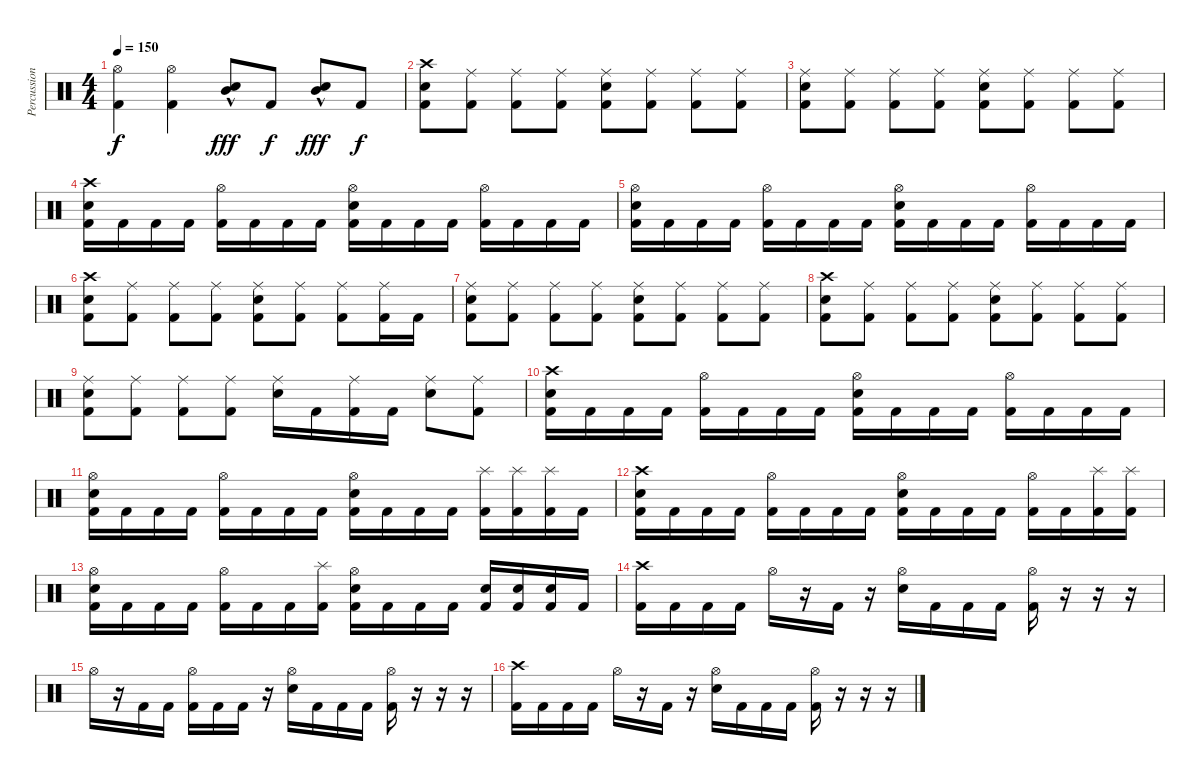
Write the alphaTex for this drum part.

\track ("Percussion" "Percussion") {instrument percussion}
\staff {score}
\articulation defaults
\ts (4 4)
\tempo 150
\clef neutral
\ks c
("Hi-Hat (open)" "Kick (hit) 2").4{dy f} ("Hi-Hat (open)" "Kick (hit) 2").4 ("Mid Tom (hit)"{hac} "Snare (hit) 2").8{dy fff} "Kick (hit) 2".8{dy f} ("Mid Tom (hit)"{hac} "Snare (hit) 2").8{dy fff} "Kick (hit) 2".8{dy f} |
("Crash high (hit)" "Snare (hit) 2" "Kick (hit) 2").8 ("Ride (middle)" "Kick (hit) 2").8 ("Ride (middle)" "Kick (hit) 2").8 ("Ride (middle)" "Kick (hit) 2").8 ("Ride (middle)" "Snare (hit) 2" "Kick (hit) 2").8 ("Ride (middle)" "Kick (hit) 2").8 ("Ride (middle)" "Kick (hit) 2").8 ("Ride (middle)" "Kick (hit) 2").8 |
("Ride (middle)" "Snare (hit) 2" "Kick (hit) 2").8 ("Ride (middle)" "Kick (hit) 2").8 ("Ride (middle)" "Kick (hit) 2").8 ("Ride (middle)" "Kick (hit) 2").8 ("Ride (middle)" "Snare (hit) 2" "Kick (hit) 2").8 ("Ride (middle)" "Kick (hit) 2").8 ("Ride (middle)" "Kick (hit) 2").8 ("Ride (middle)" "Kick (hit) 2").8 |
("Crash high (hit)" "Snare (hit) 2" "Kick (hit) 2").16 "Kick (hit) 2".16 "Kick (hit) 2".16 "Kick (hit) 2".16 ("Hi-Hat (open)" "Kick (hit) 2").16 "Kick (hit) 2".16 "Kick (hit) 2".16 "Kick (hit) 2".16 ("Hi-Hat (open)" "Snare (hit) 2" "Kick (hit) 2").16 "Kick (hit) 2".16 "Kick (hit) 2".16 "Kick (hit) 2".16 ("Hi-Hat (open)" "Kick (hit) 2").16 "Kick (hit) 2".16 "Kick (hit) 2".16 "Kick (hit) 2".16 |
("Hi-Hat (open)" "Snare (hit) 2" "Kick (hit) 2").16 "Kick (hit) 2".16 "Kick (hit) 2".16 "Kick (hit) 2".16 ("Hi-Hat (open)" "Kick (hit) 2").16 "Kick (hit) 2".16 "Kick (hit) 2".16 "Kick (hit) 2".16 ("Hi-Hat (open)" "Snare (hit) 2" "Kick (hit) 2").16 "Kick (hit) 2".16 "Kick (hit) 2".16 "Kick (hit) 2".16 ("Hi-Hat (open)" "Kick (hit) 2").16 "Kick (hit) 2".16 "Kick (hit) 2".16 "Kick (hit) 2".16 |
("Crash high (hit)" "Snare (hit) 2" "Kick (hit) 2").8 ("Ride (middle)" "Kick (hit) 2").8 ("Ride (middle)" "Kick (hit) 2").8 ("Ride (middle)" "Kick (hit) 2").8 ("Ride (middle)" "Snare (hit) 2" "Kick (hit) 2").8 ("Ride (middle)" "Kick (hit) 2").8 ("Ride (middle)" "Kick (hit) 2").8 ("Ride (middle)" "Kick (hit) 2").16 "Kick (hit) 2".16 |
("Ride (middle)" "Snare (hit) 2" "Kick (hit) 2").8 ("Ride (middle)" "Kick (hit) 2").8 ("Ride (middle)" "Kick (hit) 2").8 ("Ride (middle)" "Kick (hit) 2").8 ("Ride (middle)" "Snare (hit) 2" "Kick (hit) 2").8 ("Ride (middle)" "Kick (hit) 2").8 ("Ride (middle)" "Kick (hit) 2").8 ("Ride (middle)" "Kick (hit) 2").8 |
("Crash high (hit)" "Snare (hit) 2" "Kick (hit) 2").8 ("Ride (middle)" "Kick (hit) 2").8 ("Ride (middle)" "Kick (hit) 2").8 ("Ride (middle)" "Kick (hit) 2").8 ("Ride (middle)" "Snare (hit) 2" "Kick (hit) 2").8 ("Ride (middle)" "Kick (hit) 2").8 ("Ride (middle)" "Kick (hit) 2").8 ("Ride (middle)" "Kick (hit) 2").8 |
("Ride (middle)" "Snare (hit) 2" "Kick (hit) 2").8 ("Ride (middle)" "Kick (hit) 2").8 ("Ride (middle)" "Kick (hit) 2").8 ("Ride (middle)" "Kick (hit) 2").8 ("Ride (middle)" "Snare (hit) 2").16 "Kick (hit) 2".16 ("Ride (middle)" "Kick (hit) 2").16 "Kick (hit) 2".16 ("Ride (middle)" "Snare (hit) 2").8 ("Ride (middle)" "Kick (hit) 2").8 |
("Crash high (hit)" "Snare (hit) 2" "Kick (hit) 2").16 "Kick (hit) 2".16 "Kick (hit) 2".16 "Kick (hit) 2".16 ("Hi-Hat (open)" "Kick (hit) 2").16 "Kick (hit) 2".16 "Kick (hit) 2".16 "Kick (hit) 2".16 ("Hi-Hat (open)" "Snare (hit) 2" "Kick (hit) 2").16 "Kick (hit) 2".16 "Kick (hit) 2".16 "Kick (hit) 2".16 ("Hi-Hat (open)" "Kick (hit) 2").16 "Kick (hit) 2".16 "Kick (hit) 2".16 "Kick (hit) 2".16 |
("Hi-Hat (open)" "Snare (hit) 2" "Kick (hit) 2").16 "Kick (hit) 2".16 "Kick (hit) 2".16 "Kick (hit) 2".16 ("Hi-Hat (open)" "Kick (hit) 2").16 "Kick (hit) 2".16 "Kick (hit) 2".16 "Kick (hit) 2".16 ("Hi-Hat (open)" "Snare (hit) 2" "Kick (hit) 2").16 "Kick (hit) 2".16 "Kick (hit) 2".16 "Kick (hit) 2".16 ("Splash (hit)" "Kick (hit) 2").16 ("Splash (hit)" "Kick (hit) 2").16 ("Splash (hit)" "Kick (hit) 2").16 "Kick (hit) 2".16 |
("Crash high (hit)" "Snare (hit) 2" "Kick (hit) 2").16 "Kick (hit) 2".16 "Kick (hit) 2".16 "Kick (hit) 2".16 ("Hi-Hat (open)" "Kick (hit) 2").16 "Kick (hit) 2".16 "Kick (hit) 2".16 "Kick (hit) 2".16 ("Hi-Hat (open)" "Snare (hit) 2" "Kick (hit) 2").16 "Kick (hit) 2".16 "Kick (hit) 2".16 "Kick (hit) 2".16 ("Hi-Hat (open)" "Kick (hit) 2").16 "Kick (hit) 2".16 ("Splash (hit)" "Kick (hit) 2").16 ("Splash (hit)" "Kick (hit) 2").16 |
("Hi-Hat (open)" "Snare (hit) 2" "Kick (hit) 2").16 "Kick (hit) 2".16 "Kick (hit) 2".16 "Kick (hit) 2".16 ("Hi-Hat (open)" "Kick (hit) 2").16 "Kick (hit) 2".16 "Kick (hit) 2".16 ("Splash (hit)" "Kick (hit) 2").16 ("Hi-Hat (open)" "Snare (hit) 2" "Kick (hit) 2").16 "Kick (hit) 2".16 "Kick (hit) 2".16 "Kick (hit) 2".16 ("Snare (hit) 2" "Kick (hit) 2").16 ("Snare (hit) 2" "Kick (hit) 2").16 ("Snare (hit) 2" "Kick (hit) 2").16 "Kick (hit) 2".16 |
("Crash high (hit)" "Kick (hit) 2").16 "Kick (hit) 2".16 "Kick (hit) 2".16 "Kick (hit) 2".16 "Hi-Hat (open)".16 r.16 "Kick (hit) 2".16 r.16 ("Hi-Hat (open)" "Snare (hit) 2").16 "Kick (hit) 2".16 "Kick (hit) 2".16 "Kick (hit) 2".16 ("Hi-Hat (open)" "Kick (hit) 2").16 r.16 r.16 r.16 |
"Hi-Hat (open)".16 r.16 "Kick (hit) 2".16 "Kick (hit) 2".16 ("Hi-Hat (open)" "Kick (hit) 2").16 "Kick (hit) 2".16 "Kick (hit) 2".16 r.16 ("Hi-Hat (open)" "Snare (hit) 2").16 "Kick (hit) 2".16 "Kick (hit) 2".16 "Kick (hit) 2".16 ("Hi-Hat (open)" "Kick (hit) 2").16 r.16 r.16 r.16 |
("Crash high (hit)" "Kick (hit) 2").16 "Kick (hit) 2".16 "Kick (hit) 2".16 "Kick (hit) 2".16 "Hi-Hat (open)".16 r.16 "Kick (hit) 2".16 r.16 ("Hi-Hat (open)" "Snare (hit) 2").16 "Kick (hit) 2".16 "Kick (hit) 2".16 "Kick (hit) 2".16 ("Hi-Hat (open)" "Kick (hit) 2").16 r.16 r.16 r.16
